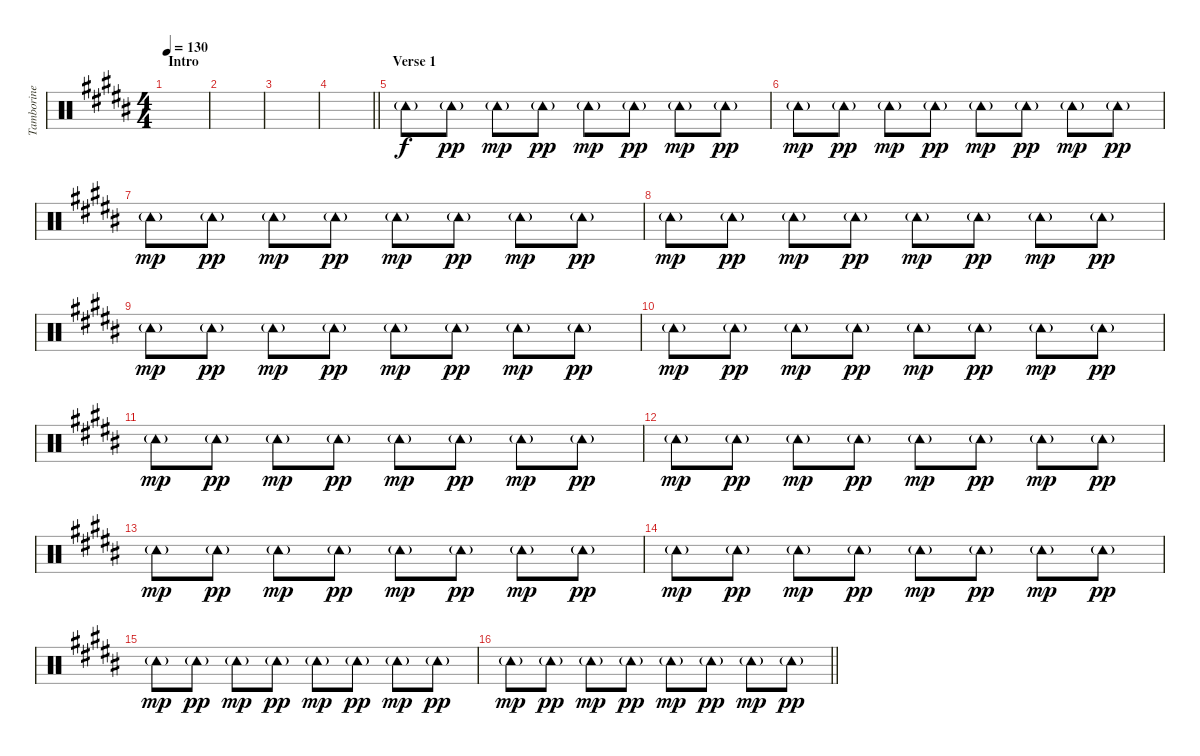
\track ("Tamborine" "Tamborine") {instrument percussion}
\staff {score}
\articulation defaults
\ts (4 4)
\section ("" "Intro")
\tempo 130
\clef neutral
\ks b
|
|
|
\barLineRight lightlight
|
\section ("" "Verse 1")
"Tambourine (hit)"{g}.8 "Tambourine (hit)"{g}.8{dy pp} "Tambourine (hit)"{g}.8{dy mp} "Tambourine (hit)"{g}.8{dy pp} "Tambourine (hit)"{g}.8{dy mp} "Tambourine (hit)"{g}.8{dy pp} "Tambourine (hit)"{g}.8{dy mp} "Tambourine (hit)"{g}.8{dy pp} |
"Tambourine (hit)"{g}.8{dy mp} "Tambourine (hit)"{g}.8{dy pp} "Tambourine (hit)"{g}.8{dy mp} "Tambourine (hit)"{g}.8{dy pp} "Tambourine (hit)"{g}.8{dy mp} "Tambourine (hit)"{g}.8{dy pp} "Tambourine (hit)"{g}.8{dy mp} "Tambourine (hit)"{g}.8{dy pp} |
"Tambourine (hit)"{g}.8{dy mp} "Tambourine (hit)"{g}.8{dy pp} "Tambourine (hit)"{g}.8{dy mp} "Tambourine (hit)"{g}.8{dy pp} "Tambourine (hit)"{g}.8{dy mp} "Tambourine (hit)"{g}.8{dy pp} "Tambourine (hit)"{g}.8{dy mp} "Tambourine (hit)"{g}.8{dy pp} |
"Tambourine (hit)"{g}.8{dy mp} "Tambourine (hit)"{g}.8{dy pp} "Tambourine (hit)"{g}.8{dy mp} "Tambourine (hit)"{g}.8{dy pp} "Tambourine (hit)"{g}.8{dy mp} "Tambourine (hit)"{g}.8{dy pp} "Tambourine (hit)"{g}.8{dy mp} "Tambourine (hit)"{g}.8{dy pp} |
"Tambourine (hit)"{g}.8{dy mp} "Tambourine (hit)"{g}.8{dy pp} "Tambourine (hit)"{g}.8{dy mp} "Tambourine (hit)"{g}.8{dy pp} "Tambourine (hit)"{g}.8{dy mp} "Tambourine (hit)"{g}.8{dy pp} "Tambourine (hit)"{g}.8{dy mp} "Tambourine (hit)"{g}.8{dy pp} |
"Tambourine (hit)"{g}.8{dy mp} "Tambourine (hit)"{g}.8{dy pp} "Tambourine (hit)"{g}.8{dy mp} "Tambourine (hit)"{g}.8{dy pp} "Tambourine (hit)"{g}.8{dy mp} "Tambourine (hit)"{g}.8{dy pp} "Tambourine (hit)"{g}.8{dy mp} "Tambourine (hit)"{g}.8{dy pp} |
"Tambourine (hit)"{g}.8{dy mp} "Tambourine (hit)"{g}.8{dy pp} "Tambourine (hit)"{g}.8{dy mp} "Tambourine (hit)"{g}.8{dy pp} "Tambourine (hit)"{g}.8{dy mp} "Tambourine (hit)"{g}.8{dy pp} "Tambourine (hit)"{g}.8{dy mp} "Tambourine (hit)"{g}.8{dy pp} |
"Tambourine (hit)"{g}.8{dy mp} "Tambourine (hit)"{g}.8{dy pp} "Tambourine (hit)"{g}.8{dy mp} "Tambourine (hit)"{g}.8{dy pp} "Tambourine (hit)"{g}.8{dy mp} "Tambourine (hit)"{g}.8{dy pp} "Tambourine (hit)"{g}.8{dy mp} "Tambourine (hit)"{g}.8{dy pp} |
"Tambourine (hit)"{g}.8{dy mp} "Tambourine (hit)"{g}.8{dy pp} "Tambourine (hit)"{g}.8{dy mp} "Tambourine (hit)"{g}.8{dy pp} "Tambourine (hit)"{g}.8{dy mp} "Tambourine (hit)"{g}.8{dy pp} "Tambourine (hit)"{g}.8{dy mp} "Tambourine (hit)"{g}.8{dy pp} |
"Tambourine (hit)"{g}.8{dy mp} "Tambourine (hit)"{g}.8{dy pp} "Tambourine (hit)"{g}.8{dy mp} "Tambourine (hit)"{g}.8{dy pp} "Tambourine (hit)"{g}.8{dy mp} "Tambourine (hit)"{g}.8{dy pp} "Tambourine (hit)"{g}.8{dy mp} "Tambourine (hit)"{g}.8{dy pp} |
"Tambourine (hit)"{g}.8{dy mp} "Tambourine (hit)"{g}.8{dy pp} "Tambourine (hit)"{g}.8{dy mp} "Tambourine (hit)"{g}.8{dy pp} "Tambourine (hit)"{g}.8{dy mp} "Tambourine (hit)"{g}.8{dy pp} "Tambourine (hit)"{g}.8{dy mp} "Tambourine (hit)"{g}.8{dy pp} |
\barLineRight lightlight "Tambourine (hit)"{g}.8{dy mp} "Tambourine (hit)"{g}.8{dy pp} "Tambourine (hit)"{g}.8{dy mp} "Tambourine (hit)"{g}.8{dy pp} "Tambourine (hit)"{g}.8{dy mp} "Tambourine (hit)"{g}.8{dy pp} "Tambourine (hit)"{g}.8{dy mp} "Tambourine (hit)"{g}.8{dy pp}
